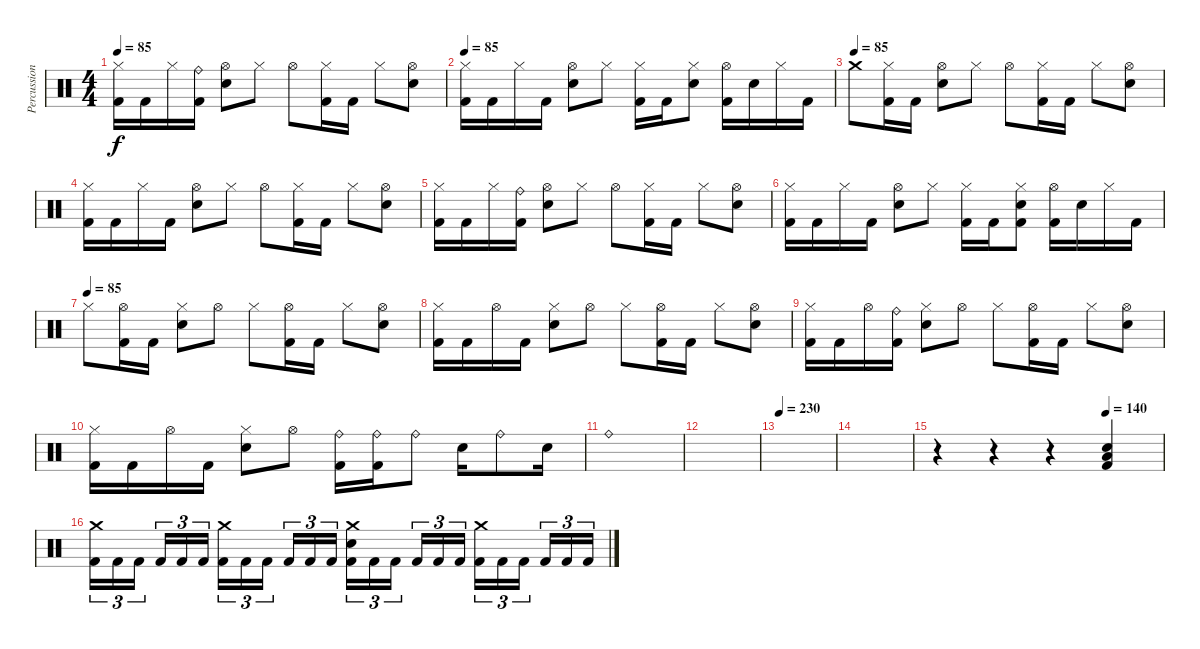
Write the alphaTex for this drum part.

\track ("Percussion" "Percussion") {instrument percussion}
\staff
\articulation defaults
\ts (4 4)
\tempo 85
\clef neutral
\ks c
("Hi-Hat (closed)" "Kick (hit) 2").16{dy f} "Kick (hit) 2".16 "Hi-Hat (closed)".16 ("Ride (bell)" "Kick (hit) 2").16 ("Hi-Hat (open)" "Electric Snare (hit)").8 "Hi-Hat (closed)".8 "Hi-Hat (open)".8 ("Hi-Hat (closed)" "Kick (hit) 2").16 "Kick (hit) 2".16 "Hi-Hat (closed)".8 ("Hi-Hat (open)" "Electric Snare (hit)").8 |
\tempo 85
("Hi-Hat (closed)" "Kick (hit) 2").16 "Kick (hit) 2".16 "Hi-Hat (closed)".16 "Kick (hit) 2".16 ("Hi-Hat (open)" "Electric Snare (hit)").8 "Hi-Hat (closed)".8 ("Hi-Hat (closed)" "Kick (hit) 2").16 "Kick (hit) 2".16 ("Hi-Hat (closed)" "Electric Snare (hit)").8 ("Hi-Hat (open)" "Kick (hit) 2").16 "Electric Snare (hit)".16 "Hi-Hat (closed)".16 "Kick (hit) 2".16 |
\tempo (85)
"Crash medium (hit)".8 ("Hi-Hat (closed)" "Kick (hit) 2").16 "Kick (hit) 2".16 ("Hi-Hat (open)" "Electric Snare (hit)").8 "Hi-Hat (closed)".8 "Hi-Hat (open)".8 ("Hi-Hat (closed)" "Kick (hit) 2").16 "Kick (hit) 2".16 "Hi-Hat (closed)".8 ("Hi-Hat (open)" "Electric Snare (hit)").8 |
("Hi-Hat (closed)" "Kick (hit) 2").16 "Kick (hit) 2".16 "Hi-Hat (closed)".16 "Kick (hit) 2".16 ("Hi-Hat (open)" "Electric Snare (hit)").8 "Hi-Hat (closed)".8 "Hi-Hat (open)".8 ("Hi-Hat (closed)" "Kick (hit) 2").16 "Kick (hit) 2".16 "Hi-Hat (closed)".8 ("Hi-Hat (open)" "Electric Snare (hit)").8 |
("Hi-Hat (closed)" "Kick (hit) 2").16 "Kick (hit) 2".16 "Hi-Hat (closed)".16 ("Ride (bell)" "Kick (hit) 2").16 ("Hi-Hat (open)" "Electric Snare (hit)").8 "Hi-Hat (closed)".8 "Hi-Hat (open)".8 ("Hi-Hat (closed)" "Kick (hit) 2").16 "Kick (hit) 2".16 "Hi-Hat (closed)".8 ("Hi-Hat (open)" "Electric Snare (hit)").8 |
("Hi-Hat (closed)" "Kick (hit) 2").16 "Kick (hit) 2".16 "Hi-Hat (closed)".16 "Kick (hit) 2".16 ("Hi-Hat (open)" "Electric Snare (hit)").8 "Hi-Hat (closed)".8 ("Hi-Hat (closed)" "Kick (hit) 2").16 "Kick (hit) 2".16 ("Hi-Hat (closed)" "Electric Snare (hit)" "Kick (hit) 2").8 ("Hi-Hat (open)" "Kick (hit) 2").16 "Electric Snare (hit)".16 "Hi-Hat (closed)".16 "Kick (hit) 2".16 |
\tempo (85)
"Hi-Hat (closed)".8 ("Hi-Hat (open)" "Kick (hit) 2").16 "Kick (hit) 2".16 ("Hi-Hat (closed)" "Electric Snare (hit)").8 "Hi-Hat (open)".8 "Hi-Hat (closed)".8 ("Hi-Hat (open)" "Kick (hit) 2").16 "Kick (hit) 2".16 "Hi-Hat (closed)".8 ("Hi-Hat (open)" "Electric Snare (hit)").8 |
("Hi-Hat (closed)" "Kick (hit) 2").16 "Kick (hit) 2".16 "Hi-Hat (open)".16 "Kick (hit) 2".16 ("Hi-Hat (closed)" "Electric Snare (hit)").8 "Hi-Hat (open)".8 "Hi-Hat (closed)".8 ("Hi-Hat (open)" "Kick (hit) 2").16 "Kick (hit) 2".16 "Hi-Hat (closed)".8 ("Hi-Hat (open)" "Electric Snare (hit)").8 |
("Hi-Hat (closed)" "Kick (hit) 2").16 "Kick (hit) 2".16 "Hi-Hat (open)".16 ("Ride (bell)" "Kick (hit) 2").16 ("Hi-Hat (closed)" "Electric Snare (hit)").8 "Hi-Hat (open)".8 "Hi-Hat (closed)".8 ("Hi-Hat (open)" "Kick (hit) 2").16 "Kick (hit) 2".16 "Hi-Hat (closed)".8 ("Hi-Hat (open)" "Electric Snare (hit)").8 |
("Hi-Hat (closed)" "Kick (hit) 2").16 "Kick (hit) 2".16 "Hi-Hat (open)".16 "Kick (hit) 2".16 ("Hi-Hat (closed)" "Electric Snare (hit)").8 "Hi-Hat (open)".8 ("Ride (bell)" "Kick (hit) 2").16 ("Ride (bell)" "Kick (hit) 2").16 "Ride (bell)".8 "Electric Snare (hit)".16 "Ride (bell)".8 "Electric Snare (hit)".16 |
"Ride (bell)".1 |
|
\tempo 230
|
|
\tempo (140 0.75)
r.4 r.4 r.4 ("Electric Snare (hit)" "Low Floor Tom (hit)" "Kick (hit) 2").4 |
("Crash medium (hit)" "Kick (hit) 2").16{tu (3 2)} "Kick (hit) 2".16{tu (3 2)} "Kick (hit) 2".16{tu (3 2) beam splitsecondary} "Kick (hit) 2".16{tu (3 2)} "Kick (hit) 2".16{tu (3 2)} "Kick (hit) 2".16{tu (3 2)} ("Crash medium (hit)" "Kick (hit) 2").16{tu (3 2)} "Kick (hit) 2".16{tu (3 2)} "Kick (hit) 2".16{tu (3 2) beam splitsecondary} "Kick (hit) 2".16{tu (3 2)} "Kick (hit) 2".16{tu (3 2)} "Kick (hit) 2".16{tu (3 2)} ("Crash medium (hit)" "Electric Snare (hit)" "Kick (hit) 2").16{tu (3 2)} "Kick (hit) 2".16{tu (3 2)} "Kick (hit) 2".16{tu (3 2) beam splitsecondary} "Kick (hit) 2".16{tu (3 2)} "Kick (hit) 2".16{tu (3 2)} "Kick (hit) 2".16{tu (3 2)} ("Crash medium (hit)" "Kick (hit) 2").16{tu (3 2)} "Kick (hit) 2".16{tu (3 2)} "Kick (hit) 2".16{tu (3 2) beam splitsecondary} "Kick (hit) 2".16{tu (3 2)} "Kick (hit) 2".16{tu (3 2)} "Kick (hit) 2".16{tu (3 2)}
